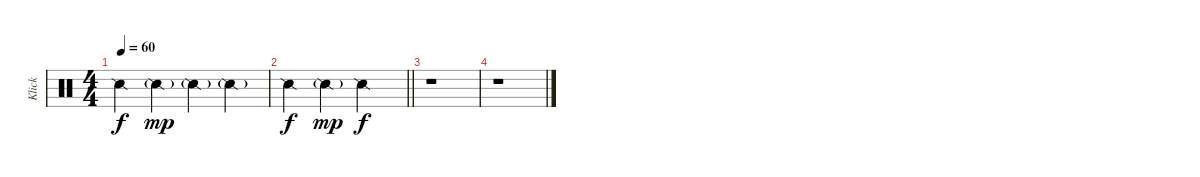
\track ("Klick" "Klick") {instrument percussion}
\staff {score}
\articulation defaults
\ts (4 4)
\tempo 60
\clef neutral
\ks c "Snare (side stick) 2".4{dy f} "Snare (side stick) 2"{g}.4{dy mp} "Snare (side stick) 2"{g}.4 "Snare (side stick) 2"{g}.4
|
\barLineRight lightlight "Snare (side stick) 2".4{dy f} "Snare (side stick) 2"{g}.4{dy mp} "Snare (side stick) 2".2{dy f}
|
r.1 |
r.1
